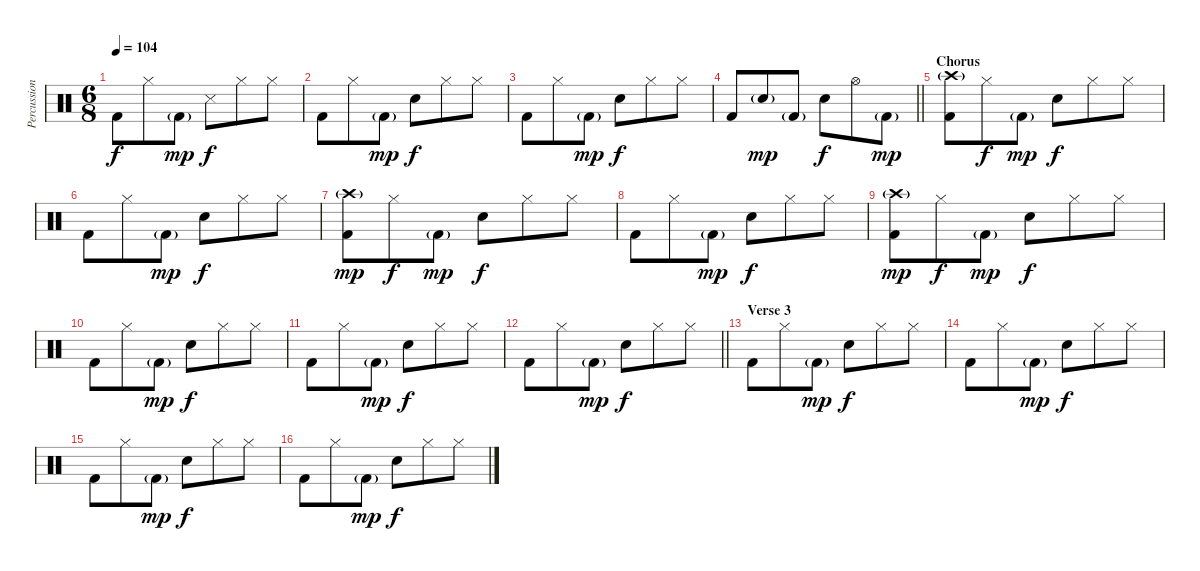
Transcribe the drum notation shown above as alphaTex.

\track ("Percussion" "Percussion") {instrument percussion}
\staff {score}
\articulation defaults
\ts (6 8)
\tempo 104
\clef neutral
\ks c "Kick (hit) 2".8{dy f} "Hi-Hat (closed)".8 "Kick (hit) 2"{g}.8{dy mp} "Snare (side stick) 3".8{dy f} "Hi-Hat (closed)".8 "Hi-Hat (closed)".8
|
"Kick (hit) 2".8 "Hi-Hat (closed)".8 "Kick (hit) 2"{g}.8{dy mp} "Snare (hit) 2".8{dy f} "Hi-Hat (closed)".8 "Hi-Hat (closed)".8 |
"Kick (hit) 2".8 "Hi-Hat (closed)".8 "Kick (hit) 2"{g}.8{dy mp} "Snare (hit) 2".8{dy f} "Hi-Hat (closed)".8 "Hi-Hat (closed)".8 |
\barLineRight lightlight "Kick (hit) 2".8 "Snare (hit) 2"{g}.8{dy mp} "Kick (hit) 2"{g}.8 "Snare (hit) 2".8{dy f} "Hi-Hat (open)".8 "Kick (hit) 2"{g}.8{dy mp}
|
\section ("" "Chorus")
("Crash high (hit)"{g} "Kick (hit) 2").8 "Hi-Hat (closed)".8{dy f} "Kick (hit) 2"{g}.8{dy mp} "Snare (hit) 2".8{dy f} "Hi-Hat (closed)".8 "Hi-Hat (closed)".8 |
"Kick (hit) 2".8 "Hi-Hat (closed)".8 "Kick (hit) 2"{g}.8{dy mp} "Snare (hit) 2".8{dy f} "Hi-Hat (closed)".8 "Hi-Hat (closed)".8 |
("Crash high (hit)"{g} "Kick (hit) 2").8{dy mp} "Hi-Hat (closed)".8{dy f} "Kick (hit) 2"{g}.8{dy mp} "Snare (hit) 2".8{dy f} "Hi-Hat (closed)".8 "Hi-Hat (closed)".8 |
"Kick (hit) 2".8 "Hi-Hat (closed)".8 "Kick (hit) 2"{g}.8{dy mp} "Snare (hit) 2".8{dy f} "Hi-Hat (closed)".8 "Hi-Hat (closed)".8 |
("Crash high (hit)"{g} "Kick (hit) 2").8{dy mp} "Hi-Hat (closed)".8{dy f} "Kick (hit) 2"{g}.8{dy mp} "Snare (hit) 2".8{dy f} "Hi-Hat (closed)".8 "Hi-Hat (closed)".8 |
"Kick (hit) 2".8 "Hi-Hat (closed)".8 "Kick (hit) 2"{g}.8{dy mp} "Snare (hit) 2".8{dy f} "Hi-Hat (closed)".8 "Hi-Hat (closed)".8 |
"Kick (hit) 2".8 "Hi-Hat (closed)".8 "Kick (hit) 2"{g}.8{dy mp} "Snare (hit) 2".8{dy f} "Hi-Hat (closed)".8 "Hi-Hat (closed)".8 |
\barLineRight lightlight "Kick (hit) 2".8 "Hi-Hat (closed)".8 "Kick (hit) 2"{g}.8{dy mp} "Snare (hit) 2".8{dy f} "Hi-Hat (closed)".8 "Hi-Hat (closed)".8
|
\section ("" "Verse 3")
"Kick (hit) 2".8 "Hi-Hat (closed)".8 "Kick (hit) 2"{g}.8{dy mp} "Snare (hit) 2".8{dy f} "Hi-Hat (closed)".8 "Hi-Hat (closed)".8 |
"Kick (hit) 2".8 "Hi-Hat (closed)".8 "Kick (hit) 2"{g}.8{dy mp} "Snare (hit) 2".8{dy f} "Hi-Hat (closed)".8 "Hi-Hat (closed)".8 |
"Kick (hit) 2".8 "Hi-Hat (closed)".8 "Kick (hit) 2"{g}.8{dy mp} "Snare (hit) 2".8{dy f} "Hi-Hat (closed)".8 "Hi-Hat (closed)".8 |
"Kick (hit) 2".8 "Hi-Hat (closed)".8 "Kick (hit) 2"{g}.8{dy mp} "Snare (hit) 2".8{dy f} "Hi-Hat (closed)".8 "Hi-Hat (closed)".8
